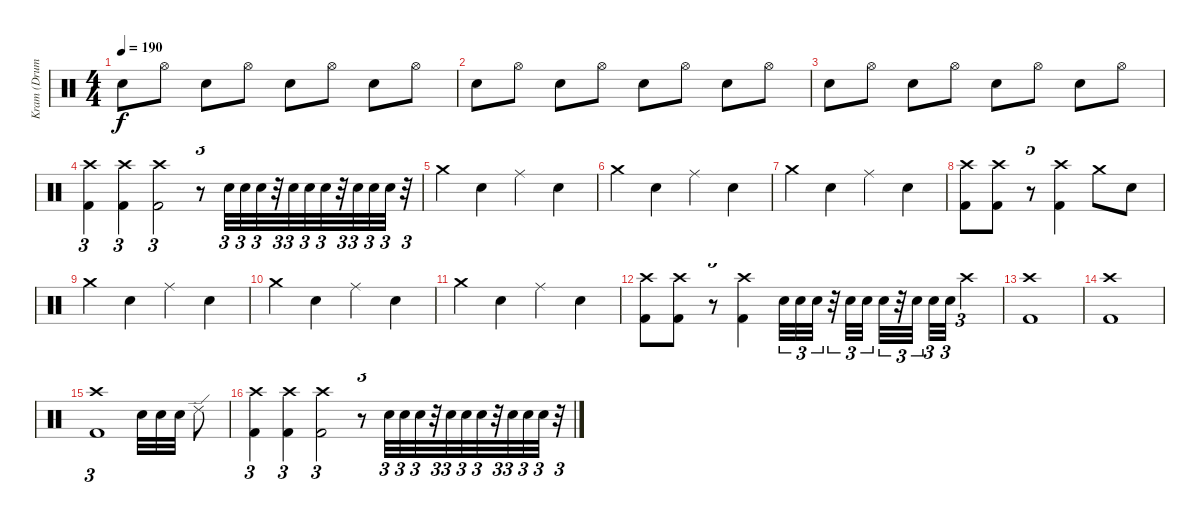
\track ("Kram (Drums)" "Kram (Drum") {instrument percussion}
\staff {score}
\articulation defaults
\ts (4 4)
\tempo 190
\clef neutral
\ks c "Snare (hit) 2".8{dy f} "Hi-Hat (open)".8 "Snare (hit) 2".8 "Hi-Hat (open)".8 "Snare (hit) 2".8 "Hi-Hat (open)".8 "Snare (hit) 2".8 "Hi-Hat (open)".8
|
"Snare (hit) 2".8 "Hi-Hat (open)".8 "Snare (hit) 2".8 "Hi-Hat (open)".8 "Snare (hit) 2".8 "Hi-Hat (open)".8 "Snare (hit) 2".8 "Hi-Hat (open)".8 |
"Snare (hit) 2".8 "Hi-Hat (open)".8 "Snare (hit) 2".8 "Hi-Hat (open)".8 "Snare (hit) 2".8 "Hi-Hat (open)".8 "Snare (hit) 2".8 "Hi-Hat (open)".8 |
("Kick (hit) 2" "Crash high (hit)").4{tu (3 2)} ("Kick (hit) 2" "Crash high (hit)").4{tu (3 2)} ("Kick (hit) 2" "Crash high (hit)").2{tu (3 2)} r.8{tu (3 2)} "Snare (hit) 2".32{tu (3 2)} "Snare (hit) 2".32{tu (3 2)} "Snare (hit) 2".32{tu (3 2)} r.32{tu (3 2)} "Snare (hit) 2".32{tu (3 2)} "Snare (hit) 2".32{tu (3 2)} "Snare (hit) 2".32{tu (3 2)} r.32{tu (3 2)} "Snare (hit) 2".32{tu (3 2)} "Snare (hit) 2".32{tu (3 2)} "Snare (hit) 2".32{tu (3 2)} r.32{tu (3 2)} |
"Crash medium (hit)".4 "Snare (hit) 2".4 "Ride (middle)".4 "Snare (hit) 2".4 |
"Crash medium (hit)".4 "Snare (hit) 2".4 "Ride (middle)".4 "Snare (hit) 2".4 |
"Crash medium (hit)".4 "Snare (hit) 2".4 "Ride (middle)".4 "Snare (hit) 2".4 |
("Kick (hit) 2" "Crash high (hit)").8 ("Kick (hit) 2" "Crash high (hit)").8 r.8{tu (5 4)} ("Kick (hit) 2" "Crash high (hit)").4 "Crash medium (hit)".8 "Snare (hit) 2".8 |
"Crash medium (hit)".4 "Snare (hit) 2".4 "Ride (middle)".4 "Snare (hit) 2".4 |
"Crash medium (hit)".4 "Snare (hit) 2".4 "Ride (middle)".4 "Snare (hit) 2".4 |
"Crash medium (hit)".4 "Snare (hit) 2".4 "Ride (middle)".4 "Snare (hit) 2".4 |
("Kick (hit) 2" "Crash high (hit)").8 ("Kick (hit) 2" "Crash high (hit)").8 r.8{tu (5 4)} ("Kick (hit) 2" "Crash high (hit)").4 "Snare (hit) 2".32{tu (3 2)} "Snare (hit) 2".32{tu (3 2)} "Snare (hit) 2".32{tu (3 2)} r.32{tu (3 2)} "Snare (hit) 2".32{tu (3 2)} "Snare (hit) 2".32{tu (3 2) beam splitsecondary} "Snare (hit) 2".32{tu (3 2)} r.32{tu (3 2)} "Snare (hit) 2".32{tu (3 2) beam splitsecondary} "Snare (hit) 2".32{tu (3 2)} "Snare (hit) 2".32{tu (3 2)} "Crash high (hit)".4{tu (3 2)} |
("Kick (hit) 2" "Crash high (hit)").1 |
("Kick (hit) 2" "Crash high (hit)").1 |
("Kick (hit) 2" "Crash high (hit)").1{tu (3 2)} "Snare (hit) 2".32 "Snare (hit) 2".32 "Snare (hit) 2".32 "Ride (edge) 2".8 |
("Kick (hit) 2" "Crash high (hit)").4{tu (3 2)} ("Kick (hit) 2" "Crash high (hit)").4{tu (3 2)} ("Kick (hit) 2" "Crash high (hit)").2{tu (3 2)} r.8{tu (3 2)} "Snare (hit) 2".32{tu (3 2)} "Snare (hit) 2".32{tu (3 2)} "Snare (hit) 2".32{tu (3 2)} r.32{tu (3 2)} "Snare (hit) 2".32{tu (3 2)} "Snare (hit) 2".32{tu (3 2)} "Snare (hit) 2".32{tu (3 2)} r.32{tu (3 2)} "Snare (hit) 2".32{tu (3 2)} "Snare (hit) 2".32{tu (3 2)} "Snare (hit) 2".32{tu (3 2)} r.32{tu (3 2)}
